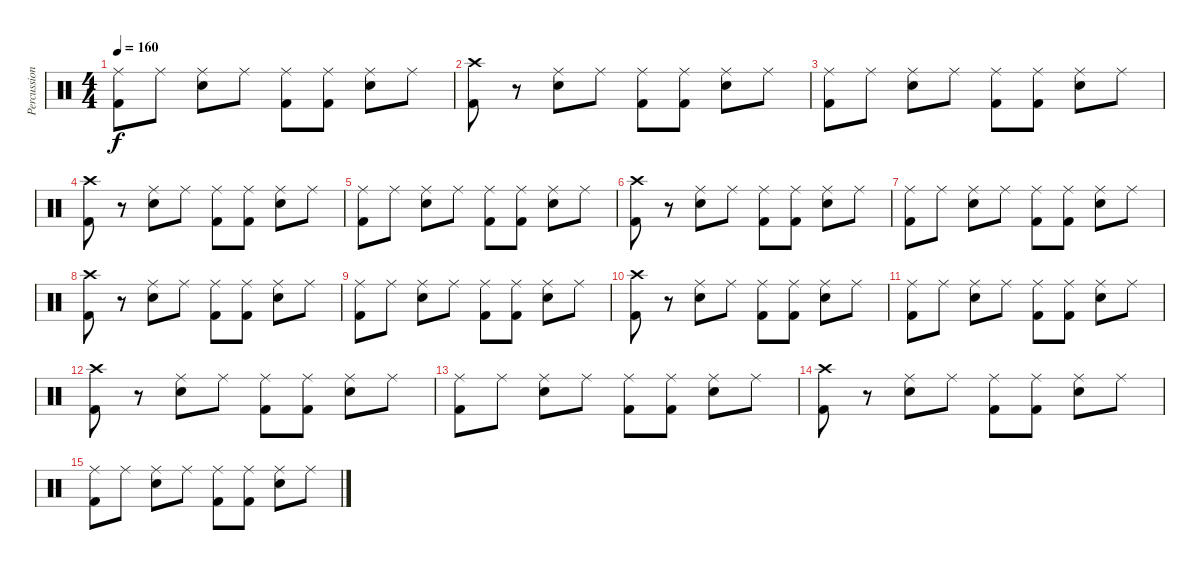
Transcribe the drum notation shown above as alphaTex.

\track ("Percussion - album" "Percussion") {mute instrument percussion}
\staff {score}
\articulation defaults
\ts (4 4)
\tempo 160
\clef neutral
\ks c
("Ride (middle)" "Kick (hit) 2").8{dy f} "Ride (middle)".8 ("Ride (middle)" "Snare (hit) 2").8 "Ride (middle)".8 ("Ride (middle)" "Kick (hit) 2").8 ("Ride (middle)" "Kick (hit) 2").8 ("Ride (middle)" "Snare (hit) 2").8 "Ride (middle)".8 |
("Crash high (hit)" "Kick (hit) 2").8 r.8 ("Ride (middle)" "Snare (hit) 2").8 "Ride (middle)".8 ("Ride (middle)" "Kick (hit) 2").8 ("Ride (middle)" "Kick (hit) 2").8 ("Ride (middle)" "Snare (hit) 2").8 "Ride (middle)".8 |
("Ride (middle)" "Kick (hit) 2").8 "Ride (middle)".8 ("Ride (middle)" "Snare (hit) 2").8 "Ride (middle)".8 ("Ride (middle)" "Kick (hit) 2").8 ("Ride (middle)" "Kick (hit) 2").8 ("Ride (middle)" "Snare (hit) 2").8 "Ride (middle)".8 |
("Crash high (hit)" "Kick (hit) 2").8 r.8 ("Ride (middle)" "Snare (hit) 2").8 "Ride (middle)".8 ("Ride (middle)" "Kick (hit) 2").8 ("Ride (middle)" "Kick (hit) 2").8 ("Ride (middle)" "Snare (hit) 2").8 "Ride (middle)".8 |
("Ride (middle)" "Kick (hit) 2").8 "Ride (middle)".8 ("Ride (middle)" "Snare (hit) 2").8 "Ride (middle)".8 ("Ride (middle)" "Kick (hit) 2").8 ("Ride (middle)" "Kick (hit) 2").8 ("Ride (middle)" "Snare (hit) 2").8 "Ride (middle)".8 |
("Crash high (hit)" "Kick (hit) 2").8 r.8 ("Ride (middle)" "Snare (hit) 2").8 "Ride (middle)".8 ("Ride (middle)" "Kick (hit) 2").8 ("Ride (middle)" "Kick (hit) 2").8 ("Ride (middle)" "Snare (hit) 2").8 "Ride (middle)".8 |
("Ride (middle)" "Kick (hit) 2").8 "Ride (middle)".8 ("Ride (middle)" "Snare (hit) 2").8 "Ride (middle)".8 ("Ride (middle)" "Kick (hit) 2").8 ("Ride (middle)" "Kick (hit) 2").8 ("Ride (middle)" "Snare (hit) 2").8 "Ride (middle)".8 |
("Crash high (hit)" "Kick (hit) 2").8 r.8 ("Ride (middle)" "Snare (hit) 2").8 "Ride (middle)".8 ("Ride (middle)" "Kick (hit) 2").8 ("Ride (middle)" "Kick (hit) 2").8 ("Ride (middle)" "Snare (hit) 2").8 "Ride (middle)".8 |
("Ride (middle)" "Kick (hit) 2").8 "Ride (middle)".8 ("Ride (middle)" "Snare (hit) 2").8 "Ride (middle)".8 ("Ride (middle)" "Kick (hit) 2").8 ("Ride (middle)" "Kick (hit) 2").8 ("Ride (middle)" "Snare (hit) 2").8 "Ride (middle)".8 |
("Crash high (hit)" "Kick (hit) 2").8 r.8 ("Ride (middle)" "Snare (hit) 2").8 "Ride (middle)".8 ("Ride (middle)" "Kick (hit) 2").8 ("Ride (middle)" "Kick (hit) 2").8 ("Ride (middle)" "Snare (hit) 2").8 "Ride (middle)".8 |
("Ride (middle)" "Kick (hit) 2").8 "Ride (middle)".8 ("Ride (middle)" "Snare (hit) 2").8 "Ride (middle)".8 ("Ride (middle)" "Kick (hit) 2").8 ("Ride (middle)" "Kick (hit) 2").8 ("Ride (middle)" "Snare (hit) 2").8 "Ride (middle)".8 |
("Crash high (hit)" "Kick (hit) 2").8 r.8 ("Ride (middle)" "Snare (hit) 2").8 "Ride (middle)".8 ("Ride (middle)" "Kick (hit) 2").8 ("Ride (middle)" "Kick (hit) 2").8 ("Ride (middle)" "Snare (hit) 2").8 "Ride (middle)".8 |
("Ride (middle)" "Kick (hit) 2").8 "Ride (middle)".8 ("Ride (middle)" "Snare (hit) 2").8 "Ride (middle)".8 ("Ride (middle)" "Kick (hit) 2").8 ("Ride (middle)" "Kick (hit) 2").8 ("Ride (middle)" "Snare (hit) 2").8 "Ride (middle)".8 |
("Crash high (hit)" "Kick (hit) 2").8 r.8 ("Ride (middle)" "Snare (hit) 2").8 "Ride (middle)".8 ("Ride (middle)" "Kick (hit) 2").8 ("Ride (middle)" "Kick (hit) 2").8 ("Ride (middle)" "Snare (hit) 2").8 "Ride (middle)".8 |
("Ride (middle)" "Kick (hit) 2").8 "Ride (middle)".8 ("Ride (middle)" "Snare (hit) 2").8 "Ride (middle)".8 ("Ride (middle)" "Kick (hit) 2").8 ("Ride (middle)" "Kick (hit) 2").8 ("Ride (middle)" "Snare (hit) 2").8 "Ride (middle)".8
